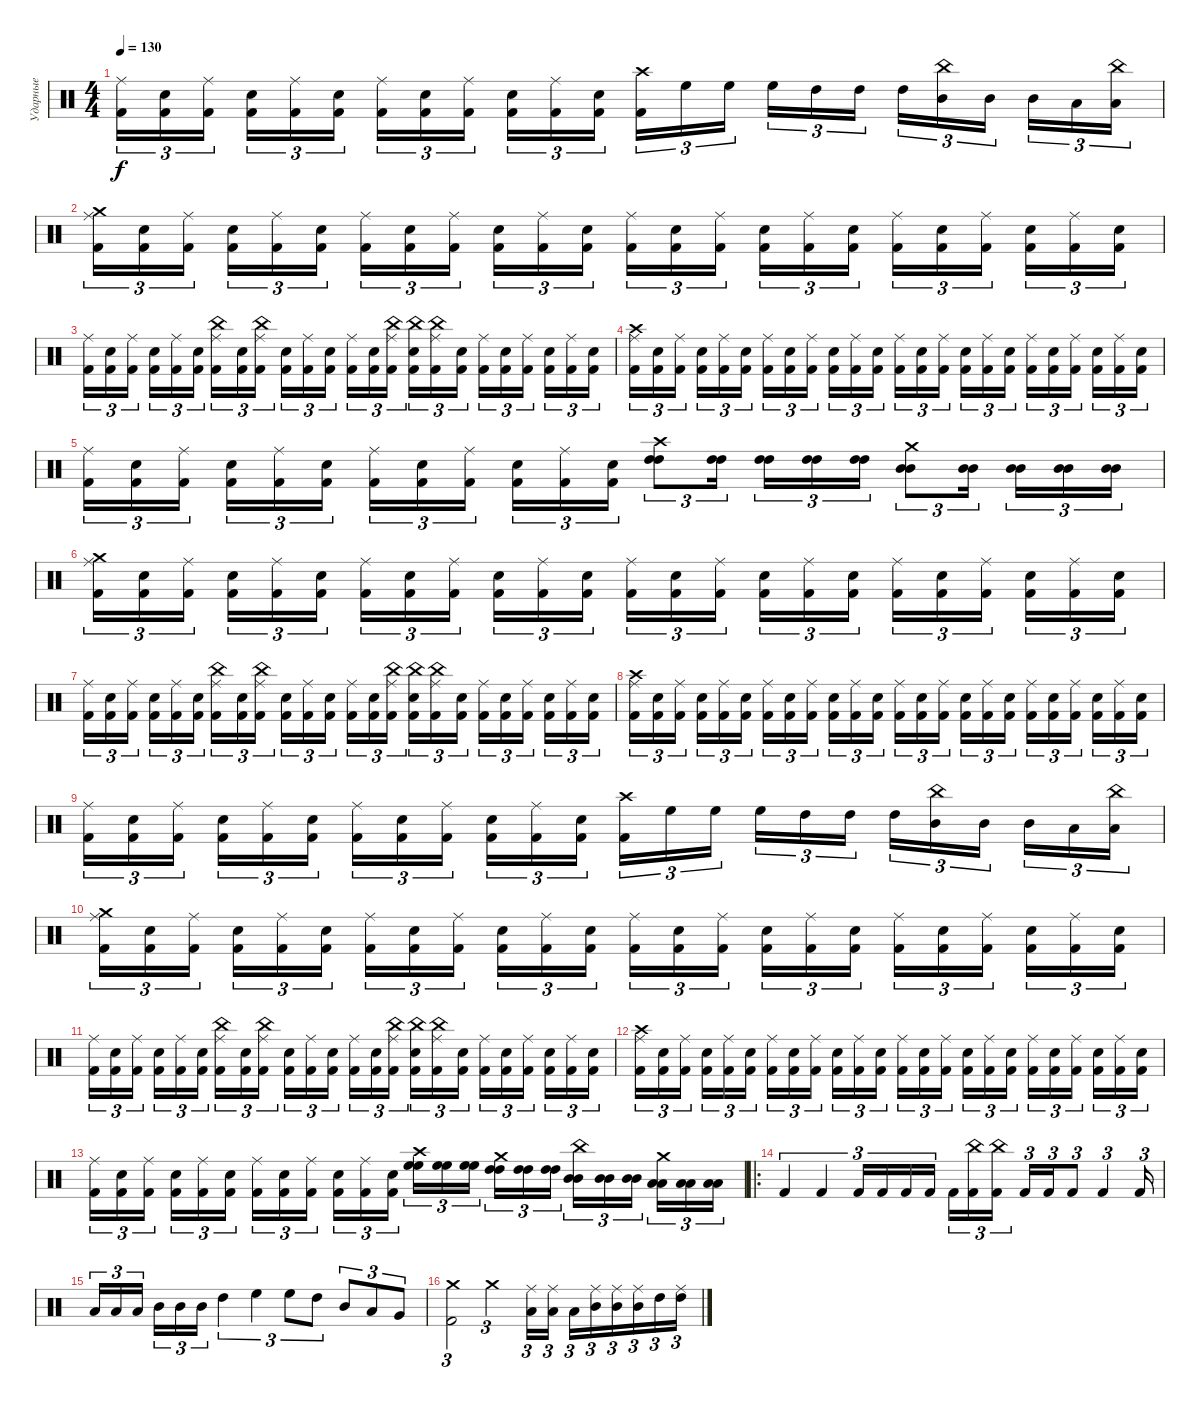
\track ("Ударные" "Ударные") {instrument percussion}
\staff {score}
\articulation defaults
\ts (4 4)
\tempo 130
\clef neutral
\ks c
("Ride (middle)" "Kick (hit) 2").16{tu (3 2) dy f} ("Electric Snare (hit)" "Kick (hit) 2").16{tu (3 2)} ("Ride (middle)" "Kick (hit) 2").16{tu (3 2)} ("Electric Snare (hit)" "Kick (hit) 2").16{tu (3 2)} ("Ride (middle)" "Kick (hit) 2").16{tu (3 2)} ("Electric Snare (hit)" "Kick (hit) 2").16{tu (3 2)} ("Ride (middle)" "Kick (hit) 2").16{tu (3 2)} ("Electric Snare (hit)" "Kick (hit) 2").16{tu (3 2)} ("Ride (middle)" "Kick (hit) 2").16{tu (3 2)} ("Electric Snare (hit)" "Kick (hit) 2").16{tu (3 2)} ("Ride (middle)" "Kick (hit) 2").16{tu (3 2)} ("Electric Snare (hit)" "Kick (hit) 2").16{tu (3 2)} ("Crash high (hit)" "Kick (hit) 2").16{tu (3 2)} "High Floor Tom (hit)".16{tu (3 2)} "High Floor Tom (hit)".16{tu (3 2)} "High Floor Tom (hit)".16{tu (3 2)} "High Tom (hit)".16{tu (3 2)} "High Tom (hit)".16{tu (3 2)} "High Tom (hit)".16{tu (3 2)} ("Mid Tom (hit)" "China (hit)").16{tu (3 2)} "Mid Tom (hit)".16{tu (3 2)} "Mid Tom (hit)".16{tu (3 2)} "Low Tom (hit)".16{tu (3 2)} ("Low Tom (hit)" "China (hit)").16{tu (3 2)} |
("Ride (middle)" "Crash medium (hit)" "Kick (hit) 2").16{tu (3 2)} ("Electric Snare (hit)" "Kick (hit) 2").16{tu (3 2)} ("Ride (middle)" "Kick (hit) 2").16{tu (3 2)} ("Electric Snare (hit)" "Kick (hit) 2").16{tu (3 2)} ("Ride (middle)" "Kick (hit) 2").16{tu (3 2)} ("Electric Snare (hit)" "Kick (hit) 2").16{tu (3 2)} ("Ride (middle)" "Kick (hit) 2").16{tu (3 2)} ("Electric Snare (hit)" "Kick (hit) 2").16{tu (3 2)} ("Ride (middle)" "Kick (hit) 2").16{tu (3 2)} ("Electric Snare (hit)" "Kick (hit) 2").16{tu (3 2)} ("Ride (middle)" "Kick (hit) 2").16{tu (3 2)} ("Electric Snare (hit)" "Kick (hit) 2").16{tu (3 2)} ("Ride (middle)" "Kick (hit) 2").16{tu (3 2)} ("Electric Snare (hit)" "Kick (hit) 2").16{tu (3 2)} ("Ride (middle)" "Kick (hit) 2").16{tu (3 2)} ("Electric Snare (hit)" "Kick (hit) 2").16{tu (3 2)} ("Ride (middle)" "Kick (hit) 2").16{tu (3 2)} ("Electric Snare (hit)" "Kick (hit) 2").16{tu (3 2)} ("Ride (middle)" "Kick (hit) 2").16{tu (3 2)} ("Electric Snare (hit)" "Kick (hit) 2").16{tu (3 2)} ("Ride (middle)" "Kick (hit) 2").16{tu (3 2)} ("Electric Snare (hit)" "Kick (hit) 2").16{tu (3 2)} ("Ride (middle)" "Kick (hit) 2").16{tu (3 2)} ("Electric Snare (hit)" "Kick (hit) 2").16{tu (3 2)} |
("Ride (middle)" "Kick (hit) 2").16{tu (3 2)} ("Electric Snare (hit)" "Kick (hit) 2").16{tu (3 2)} ("Ride (middle)" "Kick (hit) 2").16{tu (3 2)} ("Electric Snare (hit)" "Kick (hit) 2").16{tu (3 2)} ("Ride (middle)" "Kick (hit) 2").16{tu (3 2)} ("Electric Snare (hit)" "Kick (hit) 2").16{tu (3 2)} ("Ride (middle)" "China (hit)" "Kick (hit) 2").16{tu (3 2)} ("Electric Snare (hit)" "Kick (hit) 2").16{tu (3 2)} ("Ride (middle)" "China (hit)" "Kick (hit) 2").16{tu (3 2)} ("Electric Snare (hit)" "Kick (hit) 2").16{tu (3 2)} ("Ride (middle)" "Kick (hit) 2").16{tu (3 2)} ("Electric Snare (hit)" "Kick (hit) 2").16{tu (3 2)} ("Ride (middle)" "Kick (hit) 2").16{tu (3 2)} ("Electric Snare (hit)" "Kick (hit) 2").16{tu (3 2)} ("Ride (middle)" "China (hit)" "Kick (hit) 2").16{tu (3 2)} ("China (hit)" "Electric Snare (hit)" "Kick (hit) 2").16{tu (3 2)} ("Ride (middle)" "China (hit)" "Kick (hit) 2").16{tu (3 2)} ("Electric Snare (hit)" "Kick (hit) 2").16{tu (3 2)} ("Ride (middle)" "Kick (hit) 2").16{tu (3 2)} ("Electric Snare (hit)" "Kick (hit) 2").16{tu (3 2)} ("Ride (middle)" "Kick (hit) 2").16{tu (3 2)} ("Electric Snare (hit)" "Kick (hit) 2").16{tu (3 2)} ("Ride (middle)" "Kick (hit) 2").16{tu (3 2)} ("Electric Snare (hit)" "Kick (hit) 2").16{tu (3 2)} |
("Ride (middle)" "Crash high (hit)" "Kick (hit) 2").16{tu (3 2)} ("Electric Snare (hit)" "Kick (hit) 2").16{tu (3 2)} ("Ride (middle)" "Kick (hit) 2").16{tu (3 2)} ("Electric Snare (hit)" "Kick (hit) 2").16{tu (3 2)} ("Ride (middle)" "Kick (hit) 2").16{tu (3 2)} ("Electric Snare (hit)" "Kick (hit) 2").16{tu (3 2)} ("Ride (middle)" "Kick (hit) 2").16{tu (3 2)} ("Electric Snare (hit)" "Kick (hit) 2").16{tu (3 2)} ("Ride (middle)" "Kick (hit) 2").16{tu (3 2)} ("Electric Snare (hit)" "Kick (hit) 2").16{tu (3 2)} ("Ride (middle)" "Kick (hit) 2").16{tu (3 2)} ("Electric Snare (hit)" "Kick (hit) 2").16{tu (3 2)} ("Ride (middle)" "Kick (hit) 2").16{tu (3 2)} ("Electric Snare (hit)" "Kick (hit) 2").16{tu (3 2)} ("Ride (middle)" "Kick (hit) 2").16{tu (3 2)} ("Electric Snare (hit)" "Kick (hit) 2").16{tu (3 2)} ("Ride (middle)" "Kick (hit) 2").16{tu (3 2)} ("Electric Snare (hit)" "Kick (hit) 2").16{tu (3 2)} ("Ride (middle)" "Kick (hit) 2").16{tu (3 2)} ("Electric Snare (hit)" "Kick (hit) 2").16{tu (3 2)} ("Ride (middle)" "Kick (hit) 2").16{tu (3 2)} ("Electric Snare (hit)" "Kick (hit) 2").16{tu (3 2)} ("Ride (middle)" "Kick (hit) 2").16{tu (3 2)} ("Electric Snare (hit)" "Kick (hit) 2").16{tu (3 2)} |
("Ride (middle)" "Kick (hit) 2").16{tu (3 2)} ("Electric Snare (hit)" "Kick (hit) 2").16{tu (3 2)} ("Ride (middle)" "Kick (hit) 2").16{tu (3 2)} ("Electric Snare (hit)" "Kick (hit) 2").16{tu (3 2)} ("Ride (middle)" "Kick (hit) 2").16{tu (3 2)} ("Electric Snare (hit)" "Kick (hit) 2").16{tu (3 2)} ("Ride (middle)" "Kick (hit) 2").16{tu (3 2)} ("Electric Snare (hit)" "Kick (hit) 2").16{tu (3 2)} ("Ride (middle)" "Kick (hit) 2").16{tu (3 2)} ("Electric Snare (hit)" "Kick (hit) 2").16{tu (3 2)} ("Ride (middle)" "Kick (hit) 2").16{tu (3 2)} ("Electric Snare (hit)" "Kick (hit) 2").16{tu (3 2)} ("Crash high (hit)" "High Tom (hit)" "High Tom (hit)").8{tu (3 2)} ("High Tom (hit)" "High Tom (hit)").16{tu (3 2)} ("High Tom (hit)" "High Tom (hit)").16{tu (3 2)} ("High Tom (hit)" "High Tom (hit)").16{tu (3 2)} ("High Tom (hit)" "High Tom (hit)").16{tu (3 2)} ("Crash medium (hit)" "Mid Tom (hit)" "Mid Tom (hit)").8{tu (3 2)} ("Mid Tom (hit)" "Mid Tom (hit)").16{tu (3 2)} ("Mid Tom (hit)" "Mid Tom (hit)").16{tu (3 2)} ("Mid Tom (hit)" "Mid Tom (hit)").16{tu (3 2)} ("Mid Tom (hit)" "Mid Tom (hit)").16{tu (3 2)} |
("Ride (middle)" "Crash medium (hit)" "Kick (hit) 2").16{tu (3 2)} ("Electric Snare (hit)" "Kick (hit) 2").16{tu (3 2)} ("Ride (middle)" "Kick (hit) 2").16{tu (3 2)} ("Electric Snare (hit)" "Kick (hit) 2").16{tu (3 2)} ("Ride (middle)" "Kick (hit) 2").16{tu (3 2)} ("Electric Snare (hit)" "Kick (hit) 2").16{tu (3 2)} ("Ride (middle)" "Kick (hit) 2").16{tu (3 2)} ("Electric Snare (hit)" "Kick (hit) 2").16{tu (3 2)} ("Ride (middle)" "Kick (hit) 2").16{tu (3 2)} ("Electric Snare (hit)" "Kick (hit) 2").16{tu (3 2)} ("Ride (middle)" "Kick (hit) 2").16{tu (3 2)} ("Electric Snare (hit)" "Kick (hit) 2").16{tu (3 2)} ("Ride (middle)" "Kick (hit) 2").16{tu (3 2)} ("Electric Snare (hit)" "Kick (hit) 2").16{tu (3 2)} ("Ride (middle)" "Kick (hit) 2").16{tu (3 2)} ("Electric Snare (hit)" "Kick (hit) 2").16{tu (3 2)} ("Ride (middle)" "Kick (hit) 2").16{tu (3 2)} ("Electric Snare (hit)" "Kick (hit) 2").16{tu (3 2)} ("Ride (middle)" "Kick (hit) 2").16{tu (3 2)} ("Electric Snare (hit)" "Kick (hit) 2").16{tu (3 2)} ("Ride (middle)" "Kick (hit) 2").16{tu (3 2)} ("Electric Snare (hit)" "Kick (hit) 2").16{tu (3 2)} ("Ride (middle)" "Kick (hit) 2").16{tu (3 2)} ("Electric Snare (hit)" "Kick (hit) 2").16{tu (3 2)} |
("Ride (middle)" "Kick (hit) 2").16{tu (3 2)} ("Electric Snare (hit)" "Kick (hit) 2").16{tu (3 2)} ("Ride (middle)" "Kick (hit) 2").16{tu (3 2)} ("Electric Snare (hit)" "Kick (hit) 2").16{tu (3 2)} ("Ride (middle)" "Kick (hit) 2").16{tu (3 2)} ("Electric Snare (hit)" "Kick (hit) 2").16{tu (3 2)} ("Ride (middle)" "China (hit)" "Kick (hit) 2").16{tu (3 2)} ("Electric Snare (hit)" "Kick (hit) 2").16{tu (3 2)} ("Ride (middle)" "China (hit)" "Kick (hit) 2").16{tu (3 2)} ("Electric Snare (hit)" "Kick (hit) 2").16{tu (3 2)} ("Ride (middle)" "Kick (hit) 2").16{tu (3 2)} ("Electric Snare (hit)" "Kick (hit) 2").16{tu (3 2)} ("Ride (middle)" "Kick (hit) 2").16{tu (3 2)} ("Electric Snare (hit)" "Kick (hit) 2").16{tu (3 2)} ("Ride (middle)" "China (hit)" "Kick (hit) 2").16{tu (3 2)} ("China (hit)" "Electric Snare (hit)" "Kick (hit) 2").16{tu (3 2)} ("Ride (middle)" "China (hit)" "Kick (hit) 2").16{tu (3 2)} ("Electric Snare (hit)" "Kick (hit) 2").16{tu (3 2)} ("Ride (middle)" "Kick (hit) 2").16{tu (3 2)} ("Electric Snare (hit)" "Kick (hit) 2").16{tu (3 2)} ("Ride (middle)" "Kick (hit) 2").16{tu (3 2)} ("Electric Snare (hit)" "Kick (hit) 2").16{tu (3 2)} ("Ride (middle)" "Kick (hit) 2").16{tu (3 2)} ("Electric Snare (hit)" "Kick (hit) 2").16{tu (3 2)} |
("Ride (middle)" "Crash high (hit)" "Kick (hit) 2").16{tu (3 2)} ("Electric Snare (hit)" "Kick (hit) 2").16{tu (3 2)} ("Ride (middle)" "Kick (hit) 2").16{tu (3 2)} ("Electric Snare (hit)" "Kick (hit) 2").16{tu (3 2)} ("Ride (middle)" "Kick (hit) 2").16{tu (3 2)} ("Electric Snare (hit)" "Kick (hit) 2").16{tu (3 2)} ("Ride (middle)" "Kick (hit) 2").16{tu (3 2)} ("Electric Snare (hit)" "Kick (hit) 2").16{tu (3 2)} ("Ride (middle)" "Kick (hit) 2").16{tu (3 2)} ("Electric Snare (hit)" "Kick (hit) 2").16{tu (3 2)} ("Ride (middle)" "Kick (hit) 2").16{tu (3 2)} ("Electric Snare (hit)" "Kick (hit) 2").16{tu (3 2)} ("Ride (middle)" "Kick (hit) 2").16{tu (3 2)} ("Electric Snare (hit)" "Kick (hit) 2").16{tu (3 2)} ("Ride (middle)" "Kick (hit) 2").16{tu (3 2)} ("Electric Snare (hit)" "Kick (hit) 2").16{tu (3 2)} ("Ride (middle)" "Kick (hit) 2").16{tu (3 2)} ("Electric Snare (hit)" "Kick (hit) 2").16{tu (3 2)} ("Ride (middle)" "Kick (hit) 2").16{tu (3 2)} ("Electric Snare (hit)" "Kick (hit) 2").16{tu (3 2)} ("Ride (middle)" "Kick (hit) 2").16{tu (3 2)} ("Electric Snare (hit)" "Kick (hit) 2").16{tu (3 2)} ("Ride (middle)" "Kick (hit) 2").16{tu (3 2)} ("Electric Snare (hit)" "Kick (hit) 2").16{tu (3 2)} |
("Ride (middle)" "Kick (hit) 2").16{tu (3 2)} ("Electric Snare (hit)" "Kick (hit) 2").16{tu (3 2)} ("Ride (middle)" "Kick (hit) 2").16{tu (3 2)} ("Electric Snare (hit)" "Kick (hit) 2").16{tu (3 2)} ("Ride (middle)" "Kick (hit) 2").16{tu (3 2)} ("Electric Snare (hit)" "Kick (hit) 2").16{tu (3 2)} ("Ride (middle)" "Kick (hit) 2").16{tu (3 2)} ("Electric Snare (hit)" "Kick (hit) 2").16{tu (3 2)} ("Ride (middle)" "Kick (hit) 2").16{tu (3 2)} ("Electric Snare (hit)" "Kick (hit) 2").16{tu (3 2)} ("Ride (middle)" "Kick (hit) 2").16{tu (3 2)} ("Electric Snare (hit)" "Kick (hit) 2").16{tu (3 2)} ("Crash high (hit)" "Kick (hit) 2").16{tu (3 2)} "High Floor Tom (hit)".16{tu (3 2)} "High Floor Tom (hit)".16{tu (3 2)} "High Floor Tom (hit)".16{tu (3 2)} "High Tom (hit)".16{tu (3 2)} "High Tom (hit)".16{tu (3 2)} "High Tom (hit)".16{tu (3 2)} ("Mid Tom (hit)" "China (hit)").16{tu (3 2)} "Mid Tom (hit)".16{tu (3 2)} "Mid Tom (hit)".16{tu (3 2)} "Low Tom (hit)".16{tu (3 2)} ("Low Tom (hit)" "China (hit)").16{tu (3 2)} |
("Ride (middle)" "Crash medium (hit)" "Kick (hit) 2").16{tu (3 2)} ("Electric Snare (hit)" "Kick (hit) 2").16{tu (3 2)} ("Ride (middle)" "Kick (hit) 2").16{tu (3 2)} ("Electric Snare (hit)" "Kick (hit) 2").16{tu (3 2)} ("Ride (middle)" "Kick (hit) 2").16{tu (3 2)} ("Electric Snare (hit)" "Kick (hit) 2").16{tu (3 2)} ("Ride (middle)" "Kick (hit) 2").16{tu (3 2)} ("Electric Snare (hit)" "Kick (hit) 2").16{tu (3 2)} ("Ride (middle)" "Kick (hit) 2").16{tu (3 2)} ("Electric Snare (hit)" "Kick (hit) 2").16{tu (3 2)} ("Ride (middle)" "Kick (hit) 2").16{tu (3 2)} ("Electric Snare (hit)" "Kick (hit) 2").16{tu (3 2)} ("Ride (middle)" "Kick (hit) 2").16{tu (3 2)} ("Electric Snare (hit)" "Kick (hit) 2").16{tu (3 2)} ("Ride (middle)" "Kick (hit) 2").16{tu (3 2)} ("Electric Snare (hit)" "Kick (hit) 2").16{tu (3 2)} ("Ride (middle)" "Kick (hit) 2").16{tu (3 2)} ("Electric Snare (hit)" "Kick (hit) 2").16{tu (3 2)} ("Ride (middle)" "Kick (hit) 2").16{tu (3 2)} ("Electric Snare (hit)" "Kick (hit) 2").16{tu (3 2)} ("Ride (middle)" "Kick (hit) 2").16{tu (3 2)} ("Electric Snare (hit)" "Kick (hit) 2").16{tu (3 2)} ("Ride (middle)" "Kick (hit) 2").16{tu (3 2)} ("Electric Snare (hit)" "Kick (hit) 2").16{tu (3 2)} |
("Ride (middle)" "Kick (hit) 2").16{tu (3 2)} ("Electric Snare (hit)" "Kick (hit) 2").16{tu (3 2)} ("Ride (middle)" "Kick (hit) 2").16{tu (3 2)} ("Electric Snare (hit)" "Kick (hit) 2").16{tu (3 2)} ("Ride (middle)" "Kick (hit) 2").16{tu (3 2)} ("Electric Snare (hit)" "Kick (hit) 2").16{tu (3 2)} ("Ride (middle)" "China (hit)" "Kick (hit) 2").16{tu (3 2)} ("Electric Snare (hit)" "Kick (hit) 2").16{tu (3 2)} ("Ride (middle)" "China (hit)" "Kick (hit) 2").16{tu (3 2)} ("Electric Snare (hit)" "Kick (hit) 2").16{tu (3 2)} ("Ride (middle)" "Kick (hit) 2").16{tu (3 2)} ("Electric Snare (hit)" "Kick (hit) 2").16{tu (3 2)} ("Ride (middle)" "Kick (hit) 2").16{tu (3 2)} ("Electric Snare (hit)" "Kick (hit) 2").16{tu (3 2)} ("Ride (middle)" "China (hit)" "Kick (hit) 2").16{tu (3 2)} ("China (hit)" "Electric Snare (hit)" "Kick (hit) 2").16{tu (3 2)} ("Ride (middle)" "China (hit)" "Kick (hit) 2").16{tu (3 2)} ("Electric Snare (hit)" "Kick (hit) 2").16{tu (3 2)} ("Ride (middle)" "Kick (hit) 2").16{tu (3 2)} ("Electric Snare (hit)" "Kick (hit) 2").16{tu (3 2)} ("Ride (middle)" "Kick (hit) 2").16{tu (3 2)} ("Electric Snare (hit)" "Kick (hit) 2").16{tu (3 2)} ("Ride (middle)" "Kick (hit) 2").16{tu (3 2)} ("Electric Snare (hit)" "Kick (hit) 2").16{tu (3 2)} |
("Ride (middle)" "Crash high (hit)" "Kick (hit) 2").16{tu (3 2)} ("Electric Snare (hit)" "Kick (hit) 2").16{tu (3 2)} ("Ride (middle)" "Kick (hit) 2").16{tu (3 2)} ("Electric Snare (hit)" "Kick (hit) 2").16{tu (3 2)} ("Ride (middle)" "Kick (hit) 2").16{tu (3 2)} ("Electric Snare (hit)" "Kick (hit) 2").16{tu (3 2)} ("Ride (middle)" "Kick (hit) 2").16{tu (3 2)} ("Electric Snare (hit)" "Kick (hit) 2").16{tu (3 2)} ("Ride (middle)" "Kick (hit) 2").16{tu (3 2)} ("Electric Snare (hit)" "Kick (hit) 2").16{tu (3 2)} ("Ride (middle)" "Kick (hit) 2").16{tu (3 2)} ("Electric Snare (hit)" "Kick (hit) 2").16{tu (3 2)} ("Ride (middle)" "Kick (hit) 2").16{tu (3 2)} ("Electric Snare (hit)" "Kick (hit) 2").16{tu (3 2)} ("Ride (middle)" "Kick (hit) 2").16{tu (3 2)} ("Electric Snare (hit)" "Kick (hit) 2").16{tu (3 2)} ("Ride (middle)" "Kick (hit) 2").16{tu (3 2)} ("Electric Snare (hit)" "Kick (hit) 2").16{tu (3 2)} ("Ride (middle)" "Kick (hit) 2").16{tu (3 2)} ("Electric Snare (hit)" "Kick (hit) 2").16{tu (3 2)} ("Ride (middle)" "Kick (hit) 2").16{tu (3 2)} ("Electric Snare (hit)" "Kick (hit) 2").16{tu (3 2)} ("Ride (middle)" "Kick (hit) 2").16{tu (3 2)} ("Electric Snare (hit)" "Kick (hit) 2").16{tu (3 2)} |
("Ride (middle)" "Kick (hit) 2").16{tu (3 2)} ("Electric Snare (hit)" "Kick (hit) 2").16{tu (3 2)} ("Ride (middle)" "Kick (hit) 2").16{tu (3 2)} ("Electric Snare (hit)" "Kick (hit) 2").16{tu (3 2)} ("Ride (middle)" "Kick (hit) 2").16{tu (3 2)} ("Electric Snare (hit)" "Kick (hit) 2").16{tu (3 2)} ("Ride (middle)" "Kick (hit) 2").16{tu (3 2)} ("Electric Snare (hit)" "Kick (hit) 2").16{tu (3 2)} ("Ride (middle)" "Kick (hit) 2").16{tu (3 2)} ("Electric Snare (hit)" "Kick (hit) 2").16{tu (3 2)} ("Ride (middle)" "Kick (hit) 2").16{tu (3 2)} ("Electric Snare (hit)" "Kick (hit) 2").16{tu (3 2)} ("Crash high (hit)" "High Floor Tom (hit)" "High Floor Tom (hit)").16{tu (3 2)} ("High Floor Tom (hit)" "High Floor Tom (hit)").16{tu (3 2)} ("High Floor Tom (hit)" "High Floor Tom (hit)").16{tu (3 2)} ("Crash medium (hit)" "High Tom (hit)" "High Tom (hit)").16{tu (3 2)} ("High Tom (hit)" "High Tom (hit)").16{tu (3 2)} ("High Tom (hit)" "High Tom (hit)").16{tu (3 2)} ("China (hit)" "Mid Tom (hit)" "Mid Tom (hit)").16{tu (3 2)} ("Mid Tom (hit)" "Mid Tom (hit)").16{tu (3 2)} ("Mid Tom (hit)" "Mid Tom (hit)").16{tu (3 2)} ("Crash medium (hit)" "Low Tom (hit)" "Low Tom (hit)").16{tu (3 2)} ("Low Tom (hit)" "Low Tom (hit)").16{tu (3 2)} ("Low Tom (hit)" "Low Tom (hit)").16{tu (3 2)} |
\ro "Kick (hit) 2".4{tu (3 2)} "Kick (hit) 2".4{tu (3 2)} "Kick (hit) 2".16{tu (3 2)} "Kick (hit) 2".16{tu (3 2)} "Kick (hit) 2".16{tu (3 2)} "Kick (hit) 2".16{tu (3 2)} "Kick (hit) 2".16{tu (3 2)}
("China (hit)" "Kick (hit) 2").16{tu (3 2)} ("China (hit)" "Kick (hit) 2").16{tu (3 2)} "Kick (hit) 2".16{tu (3 2)} "Kick (hit) 2".16{tu (3 2)} "Kick (hit) 2".8{tu (3 2)} "Kick (hit) 2".4{tu (3 2)} "Kick (hit) 2".16{tu (3 2)} |
"Low Tom (hit)".16{tu (3 2)} "Low Tom (hit)".16{tu (3 2)} "Low Tom (hit)".16{tu (3 2)} "Mid Tom (hit)".16{tu (3 2)} "Mid Tom (hit)".16{tu (3 2)} "Mid Tom (hit)".16{tu (3 2)} "High Tom (hit)".4{tu (3 2)} "High Floor Tom (hit)".4{tu (3 2)} "High Floor Tom (hit)".8{tu (3 2)} "High Tom (hit)".8{tu (3 2)} "Mid Tom (hit)".8{tu (3 2)} "Low Tom (hit)".8{tu (3 2)} "Very Low Tom (hit)".8{tu (3 2)} |
("Crash medium (hit)" "Kick (hit) 2").2{tu (3 2)} "Crash medium (hit)".2{tu (3 2)} ("Ride (middle)" "Low Tom (hit)").16{tu (3 2)} ("Ride (middle)" "Low Tom (hit)").16{tu (3 2)} "Low Tom (hit)".16{tu (3 2)} ("Ride (middle)" "Mid Tom (hit)").16{tu (3 2)} ("Ride (middle)" "Mid Tom (hit)").16{tu (3 2)} ("Ride (middle)" "Mid Tom (hit)").16{tu (3 2)} "High Tom (hit)".16{tu (3 2)} ("Ride (middle)" "High Tom (hit)").16{tu (3 2)}
